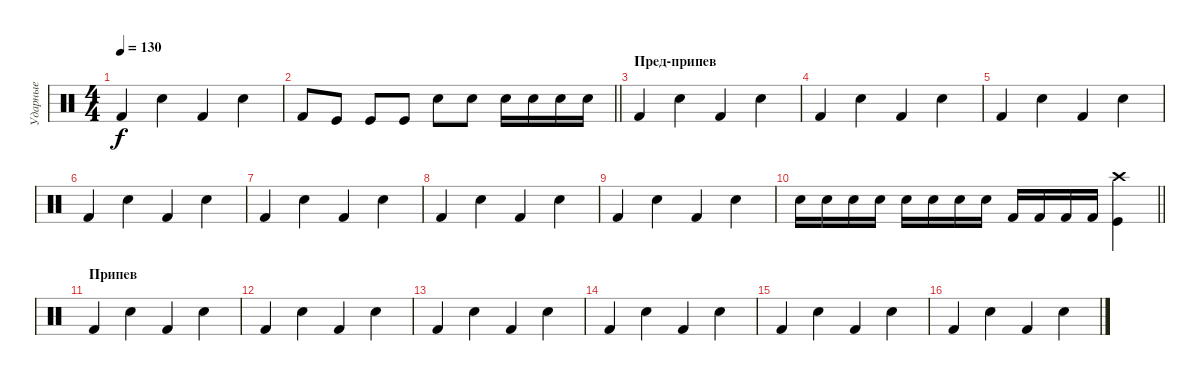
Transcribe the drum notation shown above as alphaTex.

\track ("Ударные" "Ударные") {instrument percussion}
\staff {score}
\articulation defaults
\ts (4 4)
\tempo 130
\clef neutral
\ks c "Kick (hit) 2".4{dy f} "Electric Snare (hit)".4 "Kick (hit) 2".4 "Electric Snare (hit)".4
|
\barLineRight lightlight "Kick (hit) 2".8 "Kick (hit)".8 "Kick (hit)".8 "Kick (hit)".8 "Electric Snare (hit)".8 "Electric Snare (hit)".8 "Electric Snare (hit)".16 "Electric Snare (hit)".16 "Electric Snare (hit)".16 "Electric Snare (hit)".16
|
\section ("" "Пред-припев")
"Kick (hit) 2".4 "Electric Snare (hit)".4 "Kick (hit) 2".4 "Electric Snare (hit)".4 |
"Kick (hit) 2".4 "Electric Snare (hit)".4 "Kick (hit) 2".4 "Electric Snare (hit)".4 |
"Kick (hit) 2".4 "Electric Snare (hit)".4 "Kick (hit) 2".4 "Electric Snare (hit)".4 |
"Kick (hit) 2".4 "Electric Snare (hit)".4 "Kick (hit) 2".4 "Electric Snare (hit)".4 |
"Kick (hit) 2".4 "Electric Snare (hit)".4 "Kick (hit) 2".4 "Electric Snare (hit)".4 |
"Kick (hit) 2".4 "Electric Snare (hit)".4 "Kick (hit) 2".4 "Electric Snare (hit)".4 |
"Kick (hit) 2".4 "Electric Snare (hit)".4 "Kick (hit) 2".4 "Electric Snare (hit)".4 |
\barLineRight lightlight "Electric Snare (hit)".16 "Electric Snare (hit)".16 "Electric Snare (hit)".16 "Electric Snare (hit)".16 "Electric Snare (hit)".16 "Electric Snare (hit)".16 "Electric Snare (hit)".16 "Electric Snare (hit)".16 "Kick (hit) 2".16 "Kick (hit) 2".16 "Kick (hit) 2".16 "Kick (hit) 2".16
("Crash high (hit)" "Kick (hit)").4 |
\section ("" "Припев")
"Kick (hit) 2".4 "Electric Snare (hit)".4 "Kick (hit) 2".4 "Electric Snare (hit)".4 |
"Kick (hit) 2".4 "Electric Snare (hit)".4 "Kick (hit) 2".4 "Electric Snare (hit)".4 |
"Kick (hit) 2".4 "Electric Snare (hit)".4 "Kick (hit) 2".4 "Electric Snare (hit)".4 |
"Kick (hit) 2".4 "Electric Snare (hit)".4 "Kick (hit) 2".4 "Electric Snare (hit)".4 |
"Kick (hit) 2".4 "Electric Snare (hit)".4 "Kick (hit) 2".4 "Electric Snare (hit)".4 |
"Kick (hit) 2".4 "Electric Snare (hit)".4 "Kick (hit) 2".4 "Electric Snare (hit)".4
